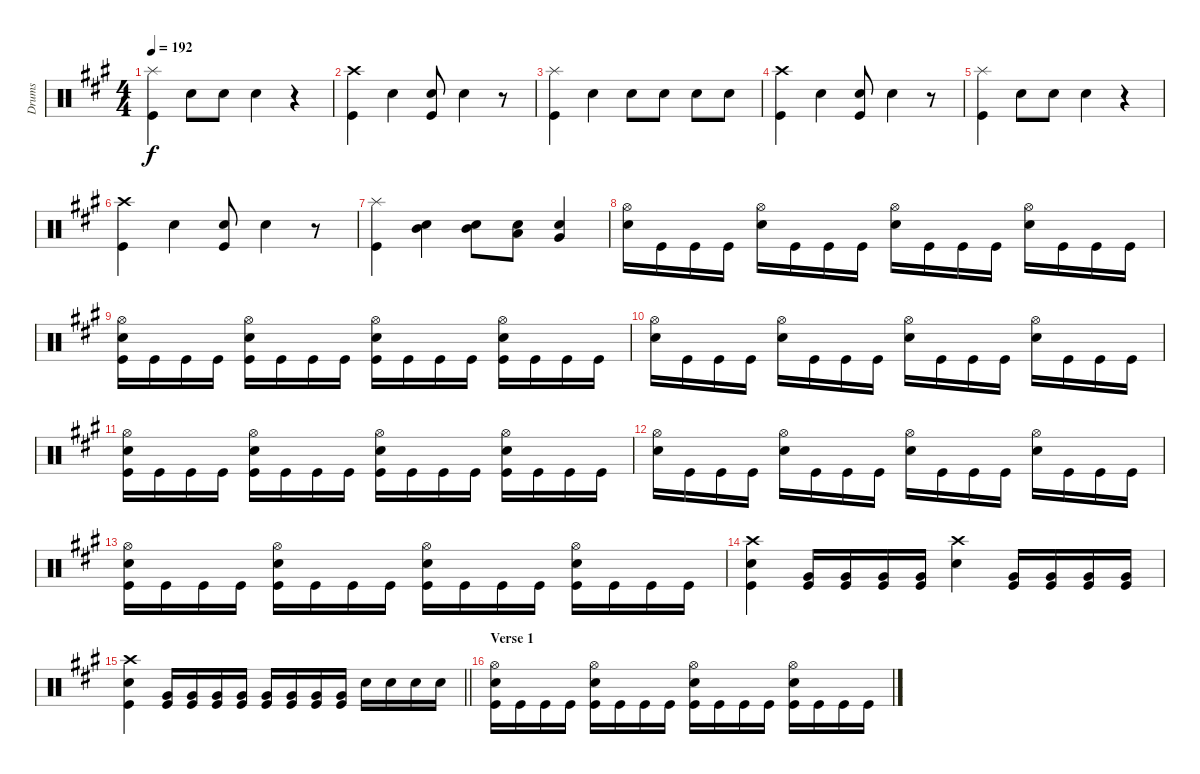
\track ("Drums" "Drums") {instrument percussion}
\staff {score}
\articulation defaults
\ts (4 4)
\tempo 192
\clef neutral
\ks f#minor
("Splash (hit)" "Kick (hit)").4{dy f} "Snare (hit) 2".8 "Snare (hit) 2".8 "Snare (hit) 2".4 r.4 |
("Crash high (hit)" "Kick (hit)").4 "Snare (hit) 2".4 ("Snare (hit) 2" "Kick (hit)").8 "Snare (hit) 2".4 r.8 |
("Splash (hit)" "Kick (hit)").4 "Snare (hit) 2".4 "Snare (hit) 2".8 "Snare (hit) 2".8 "Snare (hit) 2".8 "Snare (hit) 2".8 |
("Crash high (hit)" "Kick (hit)").4 "Snare (hit) 2".4 ("Snare (hit) 2" "Kick (hit)").8 "Snare (hit) 2".4 r.8 |
("Splash (hit)" "Kick (hit)").4 "Snare (hit) 2".8 "Snare (hit) 2".8 "Snare (hit) 2".4 r.4 |
("Crash high (hit)" "Kick (hit)").4 "Snare (hit) 2"{tr (38 16)}.4 ("Snare (hit) 2" "Kick (hit)").8 "Snare (hit) 2".4 r.8 |
("Splash (hit)" "Kick (hit)").4 ("Snare (hit) 2" "Mid Tom (hit)").4 ("Snare (hit) 2" "Mid Tom (hit)").8 ("Snare (hit) 2" "Low Tom (hit)").8 ("Snare (hit) 2" "Very Low Tom (hit)").4 |
("Hi-Hat (open)" "Snare (hit) 2").16 "Kick (hit)".16 "Kick (hit)".16 "Kick (hit)".16 ("Hi-Hat (open)" "Snare (hit) 2").16 "Kick (hit)".16 "Kick (hit)".16 "Kick (hit)".16 ("Hi-Hat (open)" "Snare (hit) 2").16 "Kick (hit)".16 "Kick (hit)".16 "Kick (hit)".16 ("Hi-Hat (open)" "Snare (hit) 2").16 "Kick (hit)".16 "Kick (hit)".16 "Kick (hit)".16 |
("Hi-Hat (open)" "Snare (hit) 2" "Kick (hit)").16 "Kick (hit)".16 "Kick (hit)".16 "Kick (hit)".16 ("Hi-Hat (open)" "Snare (hit) 2" "Kick (hit)").16 "Kick (hit)".16 "Kick (hit)".16 "Kick (hit)".16 ("Hi-Hat (open)" "Snare (hit) 2" "Kick (hit)").16 "Kick (hit)".16 "Kick (hit)".16 "Kick (hit)".16 ("Hi-Hat (open)" "Snare (hit) 2" "Kick (hit)").16 "Kick (hit)".16 "Kick (hit)".16 "Kick (hit)".16 |
("Hi-Hat (open)" "Snare (hit) 2").16 "Kick (hit)".16 "Kick (hit)".16 "Kick (hit)".16 ("Hi-Hat (open)" "Snare (hit) 2").16 "Kick (hit)".16 "Kick (hit)".16 "Kick (hit)".16 ("Hi-Hat (open)" "Snare (hit) 2").16 "Kick (hit)".16 "Kick (hit)".16 "Kick (hit)".16 ("Hi-Hat (open)" "Snare (hit) 2").16 "Kick (hit)".16 "Kick (hit)".16 "Kick (hit)".16 |
("Hi-Hat (open)" "Snare (hit) 2" "Kick (hit)").16 "Kick (hit)".16 "Kick (hit)".16 "Kick (hit)".16 ("Hi-Hat (open)" "Snare (hit) 2" "Kick (hit)").16 "Kick (hit)".16 "Kick (hit)".16 "Kick (hit)".16 ("Hi-Hat (open)" "Snare (hit) 2" "Kick (hit)").16 "Kick (hit)".16 "Kick (hit)".16 "Kick (hit)".16 ("Hi-Hat (open)" "Snare (hit) 2" "Kick (hit)").16 "Kick (hit)".16 "Kick (hit)".16 "Kick (hit)".16 |
("Hi-Hat (open)" "Snare (hit) 2").16 "Kick (hit)".16 "Kick (hit)".16 "Kick (hit)".16 ("Hi-Hat (open)" "Snare (hit) 2").16 "Kick (hit)".16 "Kick (hit)".16 "Kick (hit)".16 ("Hi-Hat (open)" "Snare (hit) 2").16 "Kick (hit)".16 "Kick (hit)".16 "Kick (hit)".16 ("Hi-Hat (open)" "Snare (hit) 2").16 "Kick (hit)".16 "Kick (hit)".16 "Kick (hit)".16 |
("Hi-Hat (open)" "Snare (hit) 2" "Kick (hit)").16 "Kick (hit)".16 "Kick (hit)".16 "Kick (hit)".16 ("Hi-Hat (open)" "Snare (hit) 2" "Kick (hit)").16 "Kick (hit)".16 "Kick (hit)".16 "Kick (hit)".16 ("Hi-Hat (open)" "Snare (hit) 2" "Kick (hit)").16 "Kick (hit)".16 "Kick (hit)".16 "Kick (hit)".16 ("Hi-Hat (open)" "Snare (hit) 2" "Kick (hit)").16 "Kick (hit)".16 "Kick (hit)".16 "Kick (hit)".16 |
("Crash high (hit)" "Snare (hit) 2" "Kick (hit)").4 ("Very Low Tom (hit)" "Kick (hit)").16 ("Very Low Tom (hit)" "Kick (hit)").16 ("Very Low Tom (hit)" "Kick (hit)").16 ("Very Low Tom (hit)" "Kick (hit)").16 ("Crash high (hit)" "Snare (hit) 2").4 ("Very Low Tom (hit)" "Kick (hit)").16 ("Very Low Tom (hit)" "Kick (hit)").16 ("Very Low Tom (hit)" "Kick (hit)").16 ("Very Low Tom (hit)" "Kick (hit)").16 |
\barLineRight lightlight
("Crash high (hit)" "Snare (hit) 2" "Kick (hit)").4 ("Very Low Tom (hit)" "Kick (hit)").16 ("Very Low Tom (hit)" "Kick (hit)").16 ("Very Low Tom (hit)" "Kick (hit)").16 ("Very Low Tom (hit)" "Kick (hit)").16 ("Very Low Tom (hit)" "Kick (hit)").16 ("Very Low Tom (hit)" "Kick (hit)").16 ("Very Low Tom (hit)" "Kick (hit)").16 ("Very Low Tom (hit)" "Kick (hit)").16 "Snare (hit) 2".16 "Snare (hit) 2".16 "Snare (hit) 2".16 "Snare (hit) 2".16 |
\section ("" "Verse 1")
("Hi-Hat (open)" "Snare (hit) 2" "Kick (hit)").16 "Kick (hit)".16 "Kick (hit)".16 "Kick (hit)".16 ("Hi-Hat (open)" "Snare (hit) 2" "Kick (hit)").16 "Kick (hit)".16 "Kick (hit)".16 "Kick (hit)".16 ("Hi-Hat (open)" "Snare (hit) 2" "Kick (hit)").16 "Kick (hit)".16 "Kick (hit)".16 "Kick (hit)".16 ("Hi-Hat (open)" "Snare (hit) 2" "Kick (hit)").16 "Kick (hit)".16 "Kick (hit)".16 "Kick (hit)".16
